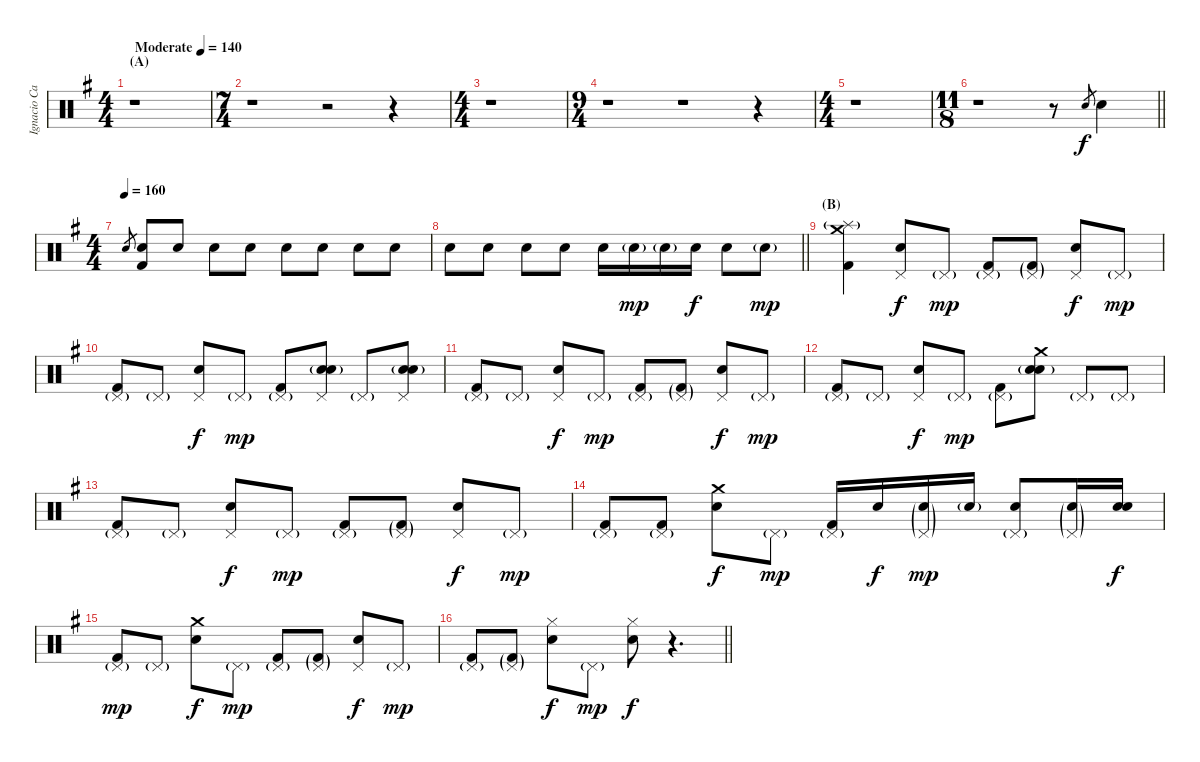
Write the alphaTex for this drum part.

\track ("Ignacio Cantera - Batería" "Ignacio Ca") {instrument percussion}
\staff {score}
\articulation defaults
\ts (4 4)
\section ("" "(A)")
\tempo (140 "Moderate")
\clef neutral
\ks eminor
r.1{dy f} |
\ts (7 4)
r.1 r.2 r.4 |
\ts (4 4)
r.1 |
\ts (9 4)
r.1 r.1 r.4 |
\ts (4 4)
r.1 |
\ts (11 8)
\barLineRight lightlight
r.1 r.8 "Electric Snare (hit)".8{gr} "Snare (hit) 2".4 |
\ts (4 4)
\section ("" "")
\tempo (160)
"Snare (hit) 2".8{gr} ("Electric Snare (hit)" "Kick (hit) 2").8 "Electric Snare (hit)".8 "Electric Snare (hit)".8 "Electric Snare (hit)".8 "Electric Snare (hit)".8 "Electric Snare (hit)".8 "Electric Snare (hit)".8 "Electric Snare (hit)".8 |
\barLineRight lightlight "Electric Snare (hit)".8 "Electric Snare (hit)".8 "Electric Snare (hit)".8 "Electric Snare (hit)".8 "Electric Snare (hit)".16 "Electric Snare (hit)"{g}.16{dy mp} "Electric Snare (hit)"{g}.16 "Electric Snare (hit)".16{dy f} "Electric Snare (hit)".8 "Electric Snare (hit)"{g}.8{dy mp}
|
\section ("" "(B)")
("Splash (hit)"{g} "Crash medium (hit)" "Kick (hit) 2").4 ("Pedal Hi-Hat (hit)" "Snare (hit) 2").8{dy f} "Pedal Hi-Hat (hit)"{g}.8{dy mp} ("Pedal Hi-Hat (hit)"{g} "Kick (hit) 2").8 ("Pedal Hi-Hat (hit)"{g} "Kick (hit) 2"{g}).8 ("Pedal Hi-Hat (hit)" "Snare (hit) 2").8{dy f} "Pedal Hi-Hat (hit)"{g}.8{dy mp} |
("Pedal Hi-Hat (hit)"{g} "Kick (hit) 2").8 "Pedal Hi-Hat (hit)"{g}.8 ("Pedal Hi-Hat (hit)" "Snare (hit) 2").8{dy f} "Pedal Hi-Hat (hit)"{g}.8{dy mp} ("Pedal Hi-Hat (hit)"{g} "Kick (hit) 2").8 ("Pedal Hi-Hat (hit)" "Snare (hit) 2" "Electric Snare (hit)"{g}).8 "Pedal Hi-Hat (hit)"{g}.8 ("Pedal Hi-Hat (hit)" "Snare (hit) 2" "Electric Snare (hit)"{g}).8 |
("Pedal Hi-Hat (hit)"{g} "Kick (hit) 2").8 "Pedal Hi-Hat (hit)"{g}.8 ("Pedal Hi-Hat (hit)" "Snare (hit) 2").8{dy f} "Pedal Hi-Hat (hit)"{g}.8{dy mp} ("Pedal Hi-Hat (hit)"{g} "Kick (hit) 2").8 ("Pedal Hi-Hat (hit)"{g} "Kick (hit) 2"{g}).8 ("Pedal Hi-Hat (hit)" "Snare (hit) 2").8{dy f} "Pedal Hi-Hat (hit)"{g}.8{dy mp} |
("Pedal Hi-Hat (hit)"{g} "Kick (hit) 2").8 "Pedal Hi-Hat (hit)"{g}.8 ("Pedal Hi-Hat (hit)" "Snare (hit) 2").8{dy f} "Pedal Hi-Hat (hit)"{g}.8{dy mp} ("Pedal Hi-Hat (hit)"{g} "Kick (hit) 2").8 ("Crash medium (hit)" "Snare (hit) 2" "Electric Snare (hit)"{g}).8 "Pedal Hi-Hat (hit)"{g}.8 "Pedal Hi-Hat (hit)"{g}.8 |
("Pedal Hi-Hat (hit)"{g} "Kick (hit) 2").8 "Pedal Hi-Hat (hit)"{g}.8 ("Pedal Hi-Hat (hit)" "Snare (hit) 2").8{dy f} "Pedal Hi-Hat (hit)"{g}.8{dy mp} ("Pedal Hi-Hat (hit)"{g} "Kick (hit) 2").8 ("Pedal Hi-Hat (hit)"{g} "Kick (hit) 2"{g}).8 ("Pedal Hi-Hat (hit)" "Snare (hit) 2").8{dy f} "Pedal Hi-Hat (hit)"{g}.8{dy mp} |
("Pedal Hi-Hat (hit)"{g} "Kick (hit) 2").8 ("Pedal Hi-Hat (hit)"{g} "Kick (hit) 2").8 ("Crash medium (hit)" "Snare (hit) 2").8{dy f} "Pedal Hi-Hat (hit)"{g}.8{dy mp} ("Pedal Hi-Hat (hit)"{g} "Kick (hit) 2").16 "Snare (hit) 2".16{dy f} ("Pedal Hi-Hat (hit)"{g} "Electric Snare (hit)"{g}).16{dy mp} "Electric Snare (hit)"{g}.16 ("Pedal Hi-Hat (hit)"{g} "Snare (hit) 2").8 ("Pedal Hi-Hat (hit)"{g} "Electric Snare (hit)"{g}).16 ("Electric Snare (hit)" "Snare (hit) 2").16{dy f} |
("Pedal Hi-Hat (hit)"{g} "Kick (hit) 2").8{dy mp} "Pedal Hi-Hat (hit)"{g}.8 ("Crash medium (hit)" "Snare (hit) 2").8{dy f} "Pedal Hi-Hat (hit)"{g}.8{dy mp} ("Pedal Hi-Hat (hit)"{g} "Kick (hit) 2").8 ("Pedal Hi-Hat (hit)"{g} "Kick (hit) 2"{g}).8 ("Pedal Hi-Hat (hit)" "Snare (hit) 2").8{dy f} "Pedal Hi-Hat (hit)"{g}.8{dy mp} |
\barLineRight lightlight
("Pedal Hi-Hat (hit)"{g} "Kick (hit) 2").8 ("Pedal Hi-Hat (hit)"{g} "Kick (hit) 2"{g}).8 ("Hi-Hat (closed)" "Snare (hit) 2").8{dy f} "Pedal Hi-Hat (hit)"{g}.8{dy mp} ("Hi-Hat (closed)" "Snare (hit) 2").8{dy f} r.4{d}
